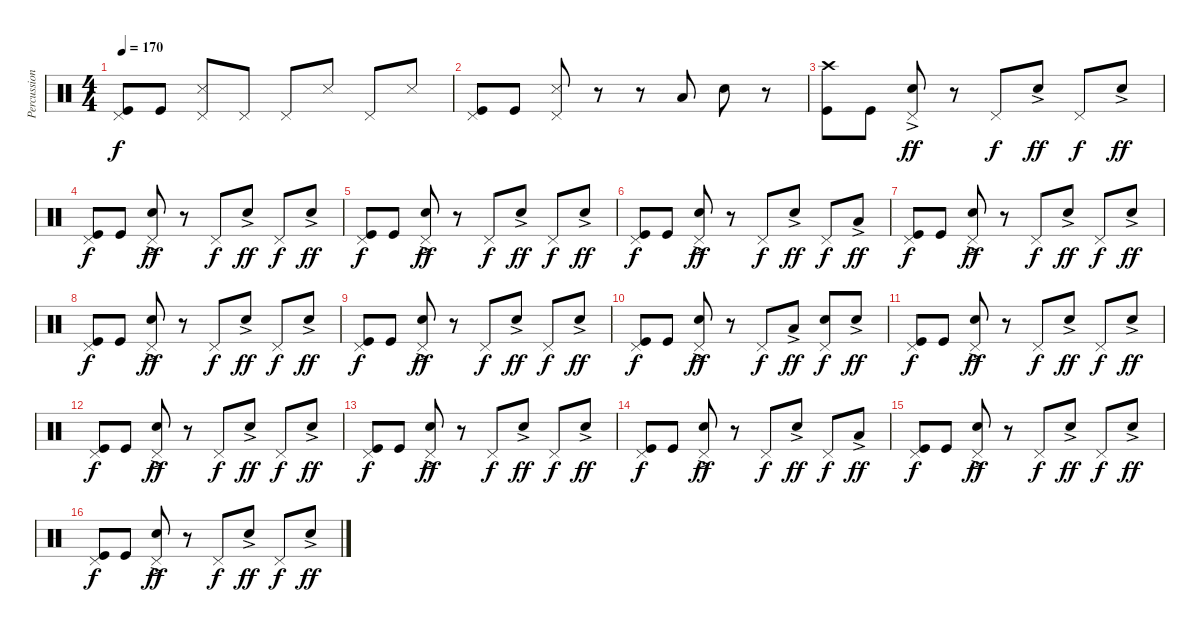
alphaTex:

\track ("Percussion" "Percussion") {instrument percussion}
\staff {score}
\articulation defaults
\ts (4 4)
\tempo 170
\clef neutral
\ks c
("Pedal Hi-Hat (hit)" "Kick (hit)").8{dy f} "Kick (hit)".8 ("Pedal Hi-Hat (hit)" "Snare (side stick) 3").8 "Pedal Hi-Hat (hit)".8 "Pedal Hi-Hat (hit)".8 "Snare (side stick) 3".8 "Pedal Hi-Hat (hit)".8 "Snare (side stick) 3".8 |
("Pedal Hi-Hat (hit)" "Kick (hit)").8 "Kick (hit)".8 ("Pedal Hi-Hat (hit)" "Snare (side stick) 3").8 r.8 r.8 "Low Tom (hit)".8 "Snare (hit) 2".8 r.8 |
("Crash high (hit)" "Kick (hit)").8 "Kick (hit)".8 ("Pedal Hi-Hat (hit)" "Snare (hit) 2"{ac}).8{dy ff} r.8 "Pedal Hi-Hat (hit)".8{dy f} "Snare (hit) 2"{ac}.8{dy ff} "Pedal Hi-Hat (hit)".8{dy f} "Snare (hit) 2"{ac}.8{dy ff} |
("Pedal Hi-Hat (hit)" "Kick (hit)").8{dy f} "Kick (hit)".8 ("Pedal Hi-Hat (hit)" "Snare (hit) 2"{ac}).8{dy ff} r.8 "Pedal Hi-Hat (hit)".8{dy f} "Snare (hit) 2"{ac}.8{dy ff} "Pedal Hi-Hat (hit)".8{dy f} "Snare (hit) 2"{ac}.8{dy ff} |
("Pedal Hi-Hat (hit)" "Kick (hit)").8{dy f} "Kick (hit)".8 ("Pedal Hi-Hat (hit)" "Snare (hit) 2"{ac}).8{dy ff} r.8 "Pedal Hi-Hat (hit)".8{dy f} "Snare (hit) 2"{ac}.8{dy ff} "Pedal Hi-Hat (hit)".8{dy f} "Snare (hit) 2"{ac}.8{dy ff} |
("Pedal Hi-Hat (hit)" "Kick (hit)").8{dy f} "Kick (hit)".8 ("Pedal Hi-Hat (hit)" "Snare (hit) 2"{ac}).8{dy ff} r.8 "Pedal Hi-Hat (hit)".8{dy f} "Snare (hit) 2"{ac}.8{dy ff} "Pedal Hi-Hat (hit)".8{dy f} "Low Tom (hit)"{ac}.8{dy ff} |
("Pedal Hi-Hat (hit)" "Kick (hit)").8{dy f} "Kick (hit)".8 ("Pedal Hi-Hat (hit)" "Snare (hit) 2"{ac}).8{dy ff} r.8 "Pedal Hi-Hat (hit)".8{dy f} "Snare (hit) 2"{ac}.8{dy ff} "Pedal Hi-Hat (hit)".8{dy f} "Snare (hit) 2"{ac}.8{dy ff} |
("Pedal Hi-Hat (hit)" "Kick (hit)").8{dy f} "Kick (hit)".8 ("Pedal Hi-Hat (hit)" "Snare (hit) 2"{ac}).8{dy ff} r.8 "Pedal Hi-Hat (hit)".8{dy f} "Snare (hit) 2"{ac}.8{dy ff} "Pedal Hi-Hat (hit)".8{dy f} "Snare (hit) 2"{ac}.8{dy ff} |
("Pedal Hi-Hat (hit)" "Kick (hit)").8{dy f} "Kick (hit)".8 ("Pedal Hi-Hat (hit)" "Snare (hit) 2"{ac}).8{dy ff} r.8 "Pedal Hi-Hat (hit)".8{dy f} "Snare (hit) 2"{ac}.8{dy ff} "Pedal Hi-Hat (hit)".8{dy f} "Snare (hit) 2"{ac}.8{dy ff} |
("Pedal Hi-Hat (hit)" "Kick (hit)").8{dy f} "Kick (hit)".8 ("Pedal Hi-Hat (hit)" "Snare (hit) 2"{ac}).8{dy ff} r.8 "Pedal Hi-Hat (hit)".8{dy f} "Low Tom (hit)"{ac}.8{dy ff} ("Pedal Hi-Hat (hit)" "Snare (hit) 2").8{dy f} "Snare (hit) 2"{ac}.8{dy ff} |
("Pedal Hi-Hat (hit)" "Kick (hit)").8{dy f} "Kick (hit)".8 ("Pedal Hi-Hat (hit)" "Snare (hit) 2"{ac}).8{dy ff} r.8 "Pedal Hi-Hat (hit)".8{dy f} "Snare (hit) 2"{ac}.8{dy ff} "Pedal Hi-Hat (hit)".8{dy f} "Snare (hit) 2"{ac}.8{dy ff} |
("Pedal Hi-Hat (hit)" "Kick (hit)").8{dy f} "Kick (hit)".8 ("Pedal Hi-Hat (hit)" "Snare (hit) 2"{ac}).8{dy ff} r.8 "Pedal Hi-Hat (hit)".8{dy f} "Snare (hit) 2"{ac}.8{dy ff} "Pedal Hi-Hat (hit)".8{dy f} "Snare (hit) 2"{ac}.8{dy ff} |
("Pedal Hi-Hat (hit)" "Kick (hit)").8{dy f} "Kick (hit)".8 ("Pedal Hi-Hat (hit)" "Snare (hit) 2"{ac}).8{dy ff} r.8 "Pedal Hi-Hat (hit)".8{dy f} "Snare (hit) 2"{ac}.8{dy ff} "Pedal Hi-Hat (hit)".8{dy f} "Snare (hit) 2"{ac}.8{dy ff} |
("Pedal Hi-Hat (hit)" "Kick (hit)").8{dy f} "Kick (hit)".8 ("Pedal Hi-Hat (hit)" "Snare (hit) 2"{ac}).8{dy ff} r.8 "Pedal Hi-Hat (hit)".8{dy f} "Snare (hit) 2"{ac}.8{dy ff} "Pedal Hi-Hat (hit)".8{dy f} "Low Tom (hit)"{ac}.8{dy ff} |
("Pedal Hi-Hat (hit)" "Kick (hit)").8{dy f} "Kick (hit)".8 ("Pedal Hi-Hat (hit)" "Snare (hit) 2"{ac}).8{dy ff} r.8 "Pedal Hi-Hat (hit)".8{dy f} "Snare (hit) 2"{ac}.8{dy ff} "Pedal Hi-Hat (hit)".8{dy f} "Snare (hit) 2"{ac}.8{dy ff} |
("Pedal Hi-Hat (hit)" "Kick (hit)").8{dy f} "Kick (hit)".8 ("Pedal Hi-Hat (hit)" "Snare (hit) 2"{ac}).8{dy ff} r.8 "Pedal Hi-Hat (hit)".8{dy f} "Snare (hit) 2"{ac}.8{dy ff} "Pedal Hi-Hat (hit)".8{dy f} "Snare (hit) 2"{ac}.8{dy ff}
